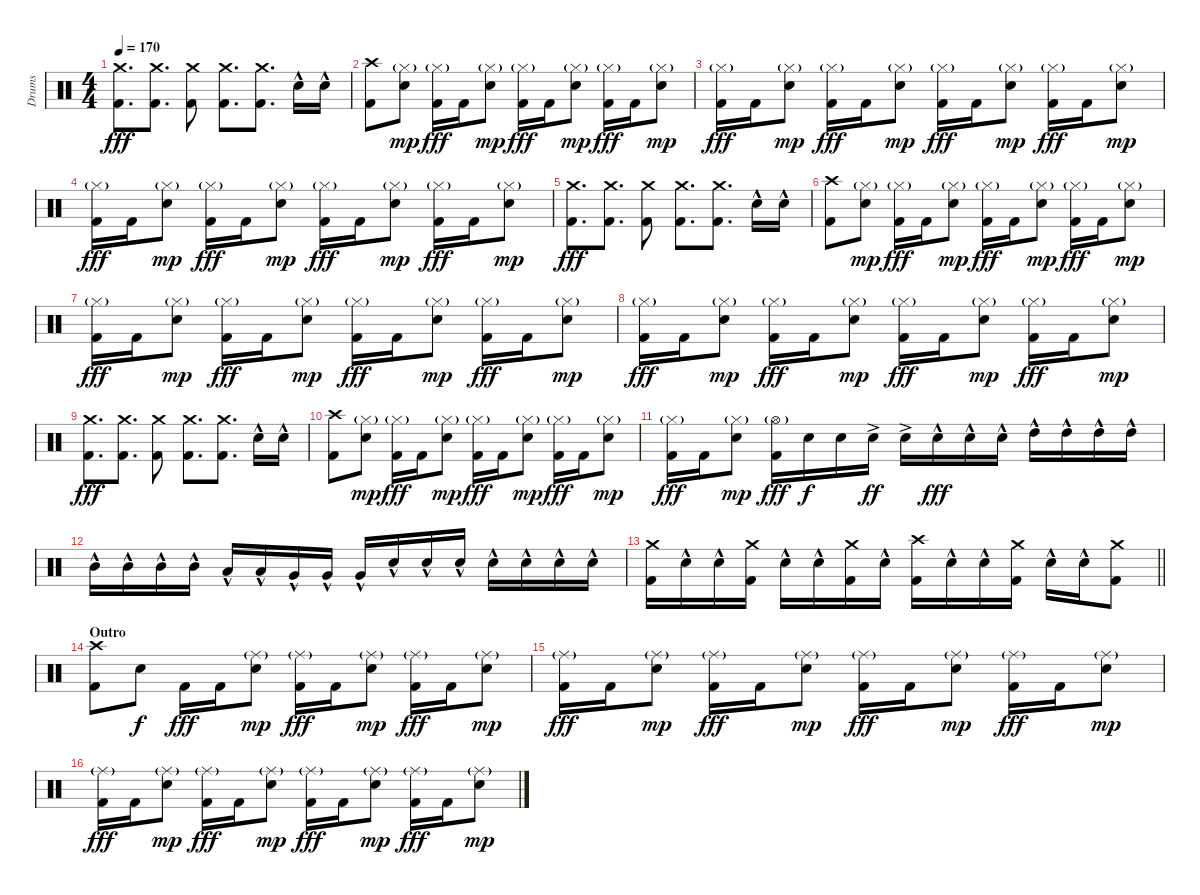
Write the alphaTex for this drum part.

\track ("Drums" "Drums") {instrument percussion}
\staff {score}
\articulation defaults
\ts (4 4)
\tempo 170
\clef neutral
\ks c
("Crash medium (hit)" "Kick (hit) 2").8{d dy fff} ("Crash medium (hit)" "Kick (hit) 2").8{d} ("Crash medium (hit)" "Kick (hit) 2").8 ("Crash medium (hit)" "Kick (hit) 2").8{d} ("Crash medium (hit)" "Kick (hit) 2").8{d} "Snare (hit) 2"{hac}.16 "Snare (hit) 2"{hac}.16 |
("Crash high (hit)" "Kick (hit) 2").8 ("Hi-Hat (closed)"{g} "Snare (hit) 2").8{dy mp} ("Hi-Hat (closed)"{g} "Kick (hit) 2").16{dy fff} "Kick (hit) 2".16 ("Hi-Hat (closed)"{g} "Snare (hit) 2").8{dy mp} ("Hi-Hat (closed)"{g} "Kick (hit) 2").16{dy fff} "Kick (hit) 2".16 ("Hi-Hat (closed)"{g} "Snare (hit) 2").8{dy mp} ("Hi-Hat (closed)"{g} "Kick (hit) 2").16{dy fff} "Kick (hit) 2".16 ("Hi-Hat (closed)"{g} "Snare (hit) 2").8{dy mp} |
("Hi-Hat (closed)"{g} "Kick (hit) 2").16{dy fff} "Kick (hit) 2".16 ("Hi-Hat (closed)"{g} "Snare (hit) 2").8{dy mp} ("Hi-Hat (closed)"{g} "Kick (hit) 2").16{dy fff} "Kick (hit) 2".16 ("Hi-Hat (closed)"{g} "Snare (hit) 2").8{dy mp} ("Hi-Hat (closed)"{g} "Kick (hit) 2").16{dy fff} "Kick (hit) 2".16 ("Hi-Hat (closed)"{g} "Snare (hit) 2").8{dy mp} ("Hi-Hat (closed)"{g} "Kick (hit) 2").16{dy fff} "Kick (hit) 2".16 ("Hi-Hat (closed)"{g} "Snare (hit) 2").8{dy mp} |
("Hi-Hat (closed)"{g} "Kick (hit) 2").16{dy fff} "Kick (hit) 2".16 ("Hi-Hat (closed)"{g} "Snare (hit) 2").8{dy mp} ("Hi-Hat (closed)"{g} "Kick (hit) 2").16{dy fff} "Kick (hit) 2".16 ("Hi-Hat (closed)"{g} "Snare (hit) 2").8{dy mp} ("Hi-Hat (closed)"{g} "Kick (hit) 2").16{dy fff} "Kick (hit) 2".16 ("Hi-Hat (closed)"{g} "Snare (hit) 2").8{dy mp} ("Hi-Hat (closed)"{g} "Kick (hit) 2").16{dy fff} "Kick (hit) 2".16 ("Hi-Hat (closed)"{g} "Snare (hit) 2").8{dy mp} |
("Crash medium (hit)" "Kick (hit) 2").8{d dy fff} ("Crash medium (hit)" "Kick (hit) 2").8{d} ("Crash medium (hit)" "Kick (hit) 2").8 ("Crash medium (hit)" "Kick (hit) 2").8{d} ("Crash medium (hit)" "Kick (hit) 2").8{d} "Snare (hit) 2"{hac}.16 "Snare (hit) 2"{hac}.16 |
("Crash high (hit)" "Kick (hit) 2").8 ("Hi-Hat (closed)"{g} "Snare (hit) 2").8{dy mp} ("Hi-Hat (closed)"{g} "Kick (hit) 2").16{dy fff} "Kick (hit) 2".16 ("Hi-Hat (closed)"{g} "Snare (hit) 2").8{dy mp} ("Hi-Hat (closed)"{g} "Kick (hit) 2").16{dy fff} "Kick (hit) 2".16 ("Hi-Hat (closed)"{g} "Snare (hit) 2").8{dy mp} ("Hi-Hat (closed)"{g} "Kick (hit) 2").16{dy fff} "Kick (hit) 2".16 ("Hi-Hat (closed)"{g} "Snare (hit) 2").8{dy mp} |
("Hi-Hat (closed)"{g} "Kick (hit) 2").16{dy fff} "Kick (hit) 2".16 ("Hi-Hat (closed)"{g} "Snare (hit) 2").8{dy mp} ("Hi-Hat (closed)"{g} "Kick (hit) 2").16{dy fff} "Kick (hit) 2".16 ("Hi-Hat (closed)"{g} "Snare (hit) 2").8{dy mp} ("Hi-Hat (closed)"{g} "Kick (hit) 2").16{dy fff} "Kick (hit) 2".16 ("Hi-Hat (closed)"{g} "Snare (hit) 2").8{dy mp} ("Hi-Hat (closed)"{g} "Kick (hit) 2").16{dy fff} "Kick (hit) 2".16 ("Hi-Hat (closed)"{g} "Snare (hit) 2").8{dy mp} |
("Hi-Hat (closed)"{g} "Kick (hit) 2").16{dy fff} "Kick (hit) 2".16 ("Hi-Hat (closed)"{g} "Snare (hit) 2").8{dy mp} ("Hi-Hat (closed)"{g} "Kick (hit) 2").16{dy fff} "Kick (hit) 2".16 ("Hi-Hat (closed)"{g} "Snare (hit) 2").8{dy mp} ("Hi-Hat (closed)"{g} "Kick (hit) 2").16{dy fff} "Kick (hit) 2".16 ("Hi-Hat (closed)"{g} "Snare (hit) 2").8{dy mp} ("Hi-Hat (closed)"{g} "Kick (hit) 2").16{dy fff} "Kick (hit) 2".16 ("Hi-Hat (closed)"{g} "Snare (hit) 2").8{dy mp} |
("Crash medium (hit)" "Kick (hit) 2").8{d dy fff} ("Crash medium (hit)" "Kick (hit) 2").8{d} ("Crash medium (hit)" "Kick (hit) 2").8 ("Crash medium (hit)" "Kick (hit) 2").8{d} ("Crash medium (hit)" "Kick (hit) 2").8{d} "Snare (hit) 2"{hac}.16 "Snare (hit) 2"{hac}.16 |
("Crash high (hit)" "Kick (hit) 2").8 ("Hi-Hat (closed)"{g} "Snare (hit) 2").8{dy mp} ("Hi-Hat (closed)"{g} "Kick (hit) 2").16{dy fff} "Kick (hit) 2".16 ("Hi-Hat (closed)"{g} "Snare (hit) 2").8{dy mp} ("Hi-Hat (closed)"{g} "Kick (hit) 2").16{dy fff} "Kick (hit) 2".16 ("Hi-Hat (closed)"{g} "Snare (hit) 2").8{dy mp} ("Hi-Hat (closed)"{g} "Kick (hit) 2").16{dy fff} "Kick (hit) 2".16 ("Hi-Hat (closed)"{g} "Snare (hit) 2").8{dy mp} |
("Hi-Hat (closed)"{g} "Kick (hit) 2").16{dy fff} "Kick (hit) 2".16 ("Hi-Hat (closed)"{g} "Snare (hit) 2").8{dy mp} ("Hi-Hat (open)"{g} "Kick (hit) 2").16{dy fff} "Snare (hit) 2".16{dy f} "Snare (hit) 2".16 "Snare (hit) 2"{ac}.16{dy ff} "Snare (hit) 2"{ac}.16 "Snare (hit) 2"{hac}.16{dy fff} "Snare (hit) 2"{hac}.16 "Snare (hit) 2"{hac}.16 "High Tom (hit)"{hac}.16 "High Tom (hit)"{hac}.16 "High Tom (hit)"{hac}.16 "High Tom (hit)"{hac}.16 |
"Mid Tom (hit)"{hac}.16 "Mid Tom (hit)"{hac}.16 "Mid Tom (hit)"{hac}.16 "Mid Tom (hit)"{hac}.16 "Low Tom (hit)"{hac}.16 "Low Tom (hit)"{hac}.16 "Very Low Tom (hit)"{hac}.16 "Very Low Tom (hit)"{hac}.16 "Very Low Tom (hit)"{hac}.16 "Snare (hit) 2"{hac}.16 "Snare (hit) 2"{hac}.16 "Snare (hit) 2"{hac}.16 "Snare (hit) 2"{hac}.16 "Snare (hit) 2"{hac}.16 "Snare (hit) 2"{hac}.16 "Snare (hit) 2"{hac}.16 |
\barLineRight lightlight
("Crash medium (hit)" "Kick (hit) 2").16 "Snare (hit) 2"{hac}.16 "Snare (hit) 2"{hac}.16 ("Crash medium (hit)" "Kick (hit) 2").16 "Snare (hit) 2"{hac}.16 "Snare (hit) 2"{hac}.16 ("Crash medium (hit)" "Kick (hit) 2").16 "Snare (hit) 2"{hac}.16 ("Crash high (hit)" "Kick (hit) 2").16 "Snare (hit) 2"{hac}.16 "Snare (hit) 2"{hac}.16 ("Crash medium (hit)" "Kick (hit) 2").16 "Snare (hit) 2"{hac}.16 "Snare (hit) 2"{hac}.16 ("Crash medium (hit)" "Kick (hit) 2").8 |
\section ("" "Outro")
("Crash high (hit)" "Kick (hit) 2").8 "Snare (hit) 2".8{dy f} "Kick (hit) 2".16{dy fff} "Kick (hit) 2".16 ("Ride (middle)"{g} "Snare (hit) 2").8{dy mp} ("Ride (middle)"{g} "Kick (hit) 2").16{dy fff} "Kick (hit) 2".16 ("Ride (middle)"{g} "Snare (hit) 2").8{dy mp} ("Ride (middle)"{g} "Kick (hit) 2").16{dy fff} "Kick (hit) 2".16 ("Ride (middle)"{g} "Snare (hit) 2").8{dy mp} |
("Ride (middle)"{g} "Kick (hit) 2").16{dy fff} "Kick (hit) 2".16 ("Ride (middle)"{g} "Snare (hit) 2").8{dy mp} ("Ride (middle)"{g} "Kick (hit) 2").16{dy fff} "Kick (hit) 2".16 ("Ride (middle)"{g} "Snare (hit) 2").8{dy mp} ("Ride (middle)"{g} "Kick (hit) 2").16{dy fff} "Kick (hit) 2".16 ("Ride (middle)"{g} "Snare (hit) 2").8{dy mp} ("Ride (middle)"{g} "Kick (hit) 2").16{dy fff} "Kick (hit) 2".16 ("Ride (middle)"{g} "Snare (hit) 2").8{dy mp} |
("Ride (middle)"{g} "Kick (hit) 2").16{dy fff} "Kick (hit) 2".16 ("Ride (middle)"{g} "Snare (hit) 2").8{dy mp} ("Ride (middle)"{g} "Kick (hit) 2").16{dy fff} "Kick (hit) 2".16 ("Ride (middle)"{g} "Snare (hit) 2").8{dy mp} ("Ride (middle)"{g} "Kick (hit) 2").16{dy fff} "Kick (hit) 2".16 ("Ride (middle)"{g} "Snare (hit) 2").8{dy mp} ("Ride (middle)"{g} "Kick (hit) 2").16{dy fff} "Kick (hit) 2".16 ("Ride (middle)"{g} "Snare (hit) 2").8{dy mp}
